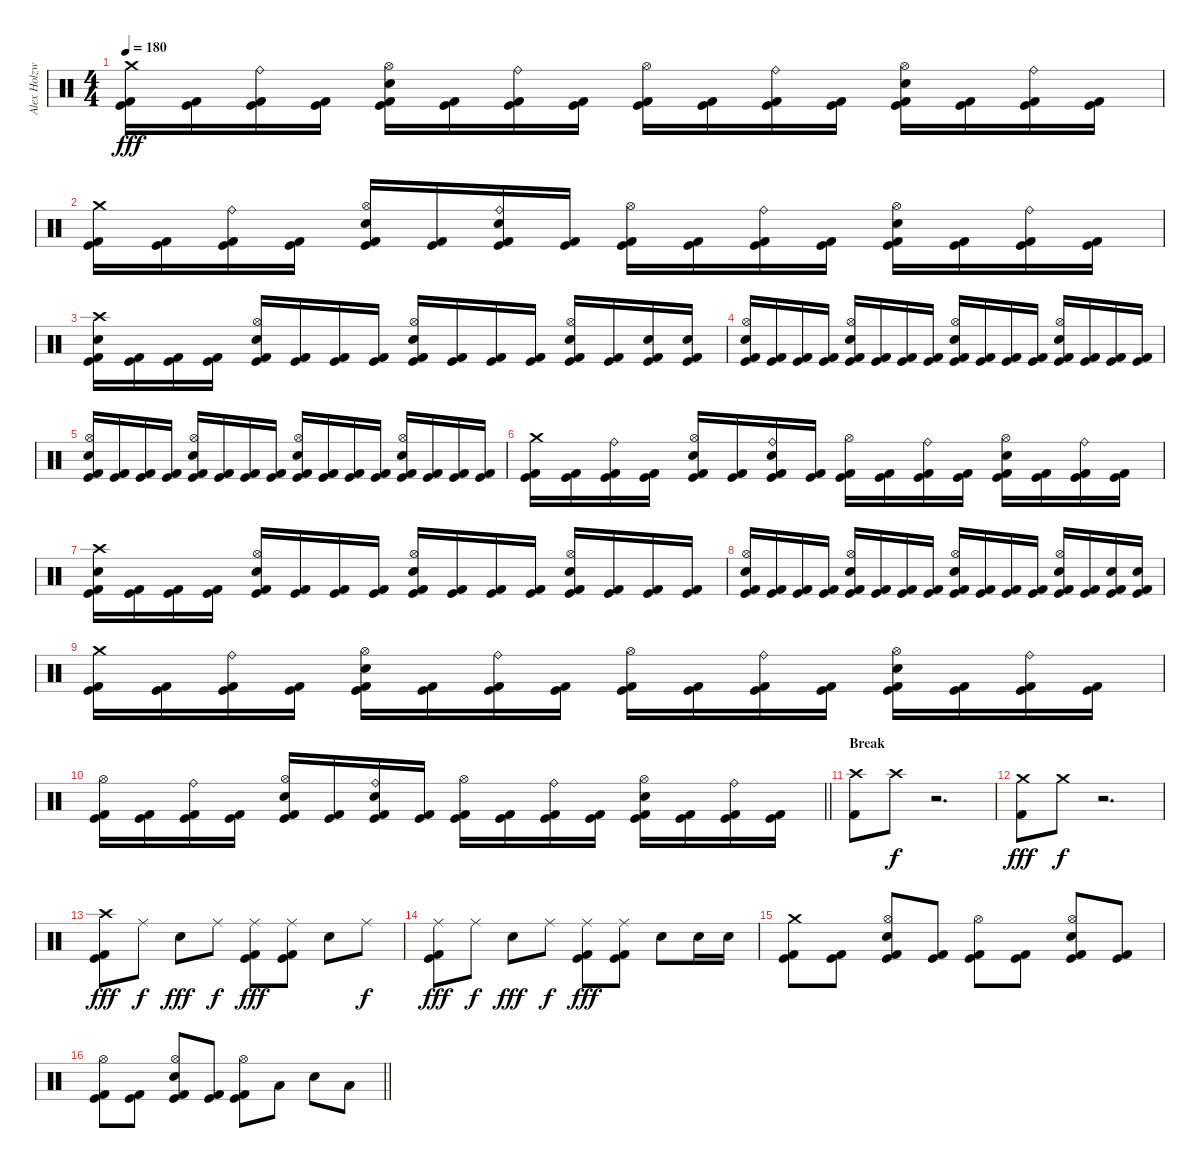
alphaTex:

\track ("Alex Holzwarth" "Alex Holzw") {instrument percussion}
\staff {score}
\articulation defaults
\ts (4 4)
\tempo 180
\clef neutral
\ks c
("Crash medium (hit)" "Kick (hit)" "Kick (hit) 2").16{dy fff} ("Kick (hit)" "Kick (hit) 2").16 ("Ride (bell)" "Kick (hit)" "Kick (hit) 2").16 ("Kick (hit)" "Kick (hit) 2").16 ("Hi-Hat (open)" "Snare (hit) 2" "Kick (hit)" "Kick (hit) 2").16 ("Kick (hit)" "Kick (hit) 2").16 ("Ride (bell)" "Kick (hit)" "Kick (hit) 2").16 ("Kick (hit)" "Kick (hit) 2").16 ("Hi-Hat (open)" "Kick (hit)" "Kick (hit) 2").16 ("Kick (hit)" "Kick (hit) 2").16 ("Ride (bell)" "Kick (hit)" "Kick (hit) 2").16 ("Kick (hit)" "Kick (hit) 2").16 ("Hi-Hat (open)" "Snare (hit) 2" "Kick (hit)" "Kick (hit) 2").16 ("Kick (hit)" "Kick (hit) 2").16 ("Ride (bell)" "Kick (hit)" "Kick (hit) 2").16 ("Kick (hit)" "Kick (hit) 2").16 |
("Crash medium (hit)" "Kick (hit)" "Kick (hit) 2").16 ("Kick (hit)" "Kick (hit) 2").16 ("Ride (bell)" "Kick (hit)" "Kick (hit) 2").16 ("Kick (hit)" "Kick (hit) 2").16 ("Hi-Hat (open)" "Snare (hit) 2" "Kick (hit)" "Kick (hit) 2").16 ("Kick (hit)" "Kick (hit) 2").16 ("Ride (bell)" "Snare (hit) 2" "Kick (hit)" "Kick (hit) 2").16 ("Kick (hit)" "Kick (hit) 2").16 ("Hi-Hat (open)" "Kick (hit)" "Kick (hit) 2").16 ("Kick (hit)" "Kick (hit) 2").16 ("Ride (bell)" "Kick (hit)" "Kick (hit) 2").16 ("Kick (hit)" "Kick (hit) 2").16 ("Hi-Hat (open)" "Snare (hit) 2" "Kick (hit)" "Kick (hit) 2").16 ("Kick (hit)" "Kick (hit) 2").16 ("Ride (bell)" "Kick (hit)" "Kick (hit) 2").16 ("Kick (hit)" "Kick (hit) 2").16 |
("Crash high (hit)" "Snare (hit) 2" "Kick (hit)" "Kick (hit) 2").16 ("Kick (hit)" "Kick (hit) 2").16 ("Kick (hit)" "Kick (hit) 2").16 ("Kick (hit)" "Kick (hit) 2").16 ("Hi-Hat (open)" "Snare (hit) 2" "Kick (hit)" "Kick (hit) 2").16 ("Kick (hit)" "Kick (hit) 2").16 ("Kick (hit)" "Kick (hit) 2").16 ("Kick (hit)" "Kick (hit) 2").16 ("Hi-Hat (open)" "Snare (hit) 2" "Kick (hit)" "Kick (hit) 2").16 ("Kick (hit)" "Kick (hit) 2").16 ("Kick (hit)" "Kick (hit) 2").16 ("Kick (hit)" "Kick (hit) 2").16 ("Hi-Hat (open)" "Snare (hit) 2" "Kick (hit)" "Kick (hit) 2").16 ("Kick (hit)" "Kick (hit) 2").16 ("Snare (hit) 2" "Kick (hit)" "Kick (hit) 2").16 ("Snare (hit) 2" "Kick (hit)" "Kick (hit) 2").16 |
("Hi-Hat (open)" "Snare (hit) 2" "Kick (hit)" "Kick (hit) 2").16 ("Kick (hit)" "Kick (hit) 2").16 ("Kick (hit)" "Kick (hit) 2").16 ("Kick (hit)" "Kick (hit) 2").16 ("Hi-Hat (open)" "Snare (hit) 2" "Kick (hit)" "Kick (hit) 2").16 ("Kick (hit)" "Kick (hit) 2").16 ("Kick (hit)" "Kick (hit) 2").16 ("Kick (hit)" "Kick (hit) 2").16 ("Hi-Hat (open)" "Snare (hit) 2" "Kick (hit)" "Kick (hit) 2").16 ("Kick (hit)" "Kick (hit) 2").16 ("Kick (hit)" "Kick (hit) 2").16 ("Kick (hit)" "Kick (hit) 2").16 ("Hi-Hat (open)" "Snare (hit) 2" "Kick (hit)" "Kick (hit) 2").16 ("Kick (hit)" "Kick (hit) 2").16 ("Kick (hit)" "Kick (hit) 2").16 ("Kick (hit)" "Kick (hit) 2").16 |
("Hi-Hat (open)" "Snare (hit) 2" "Kick (hit)" "Kick (hit) 2").16 ("Kick (hit)" "Kick (hit) 2").16 ("Kick (hit)" "Kick (hit) 2").16 ("Kick (hit)" "Kick (hit) 2").16 ("Hi-Hat (open)" "Snare (hit) 2" "Kick (hit)" "Kick (hit) 2").16 ("Kick (hit)" "Kick (hit) 2").16 ("Kick (hit)" "Kick (hit) 2").16 ("Kick (hit)" "Kick (hit) 2").16 ("Hi-Hat (open)" "Snare (hit) 2" "Kick (hit)" "Kick (hit) 2").16 ("Kick (hit)" "Kick (hit) 2").16 ("Kick (hit)" "Kick (hit) 2").16 ("Kick (hit)" "Kick (hit) 2").16 ("Hi-Hat (open)" "Snare (hit) 2" "Kick (hit)" "Kick (hit) 2").16 ("Kick (hit)" "Kick (hit) 2").16 ("Kick (hit)" "Kick (hit) 2").16 ("Kick (hit)" "Kick (hit) 2").16 |
("Crash medium (hit)" "Kick (hit)" "Kick (hit) 2").16 ("Kick (hit)" "Kick (hit) 2").16 ("Ride (bell)" "Kick (hit)" "Kick (hit) 2").16 ("Kick (hit)" "Kick (hit) 2").16 ("Hi-Hat (open)" "Snare (hit) 2" "Kick (hit)" "Kick (hit) 2").16 ("Kick (hit)" "Kick (hit) 2").16 ("Ride (bell)" "Snare (hit) 2" "Kick (hit)" "Kick (hit) 2").16 ("Kick (hit)" "Kick (hit) 2").16 ("Hi-Hat (open)" "Kick (hit)" "Kick (hit) 2").16 ("Kick (hit)" "Kick (hit) 2").16 ("Ride (bell)" "Kick (hit)" "Kick (hit) 2").16 ("Kick (hit)" "Kick (hit) 2").16 ("Hi-Hat (open)" "Snare (hit) 2" "Kick (hit)" "Kick (hit) 2").16 ("Kick (hit)" "Kick (hit) 2").16 ("Ride (bell)" "Kick (hit)" "Kick (hit) 2").16 ("Kick (hit)" "Kick (hit) 2").16 |
("Crash high (hit)" "Snare (hit) 2" "Kick (hit)" "Kick (hit) 2").16 ("Kick (hit)" "Kick (hit) 2").16 ("Kick (hit)" "Kick (hit) 2").16 ("Kick (hit)" "Kick (hit) 2").16 ("Hi-Hat (open)" "Snare (hit) 2" "Kick (hit)" "Kick (hit) 2").16 ("Kick (hit)" "Kick (hit) 2").16 ("Kick (hit)" "Kick (hit) 2").16 ("Kick (hit)" "Kick (hit) 2").16 ("Hi-Hat (open)" "Snare (hit) 2" "Kick (hit)" "Kick (hit) 2").16 ("Kick (hit)" "Kick (hit) 2").16 ("Kick (hit)" "Kick (hit) 2").16 ("Kick (hit)" "Kick (hit) 2").16 ("Hi-Hat (open)" "Snare (hit) 2" "Kick (hit)" "Kick (hit) 2").16 ("Kick (hit)" "Kick (hit) 2").16 ("Kick (hit)" "Kick (hit) 2").16 ("Kick (hit)" "Kick (hit) 2").16 |
("Hi-Hat (open)" "Snare (hit) 2" "Kick (hit)" "Kick (hit) 2").16 ("Kick (hit)" "Kick (hit) 2").16 ("Kick (hit)" "Kick (hit) 2").16 ("Kick (hit)" "Kick (hit) 2").16 ("Hi-Hat (open)" "Snare (hit) 2" "Kick (hit)" "Kick (hit) 2").16 ("Kick (hit)" "Kick (hit) 2").16 ("Kick (hit)" "Kick (hit) 2").16 ("Kick (hit)" "Kick (hit) 2").16 ("Hi-Hat (open)" "Snare (hit) 2" "Kick (hit)" "Kick (hit) 2").16 ("Kick (hit)" "Kick (hit) 2").16 ("Kick (hit)" "Kick (hit) 2").16 ("Kick (hit)" "Kick (hit) 2").16 ("Hi-Hat (open)" "Snare (hit) 2" "Kick (hit)" "Kick (hit) 2").16 ("Kick (hit)" "Kick (hit) 2").16 ("Snare (hit) 2" "Kick (hit)" "Kick (hit) 2").16 ("Snare (hit) 2" "Kick (hit)" "Kick (hit) 2").16 |
("Crash medium (hit)" "Kick (hit)" "Kick (hit) 2").16 ("Kick (hit)" "Kick (hit) 2").16 ("Ride (bell)" "Kick (hit)" "Kick (hit) 2").16 ("Kick (hit)" "Kick (hit) 2").16 ("Hi-Hat (open)" "Snare (hit) 2" "Kick (hit)" "Kick (hit) 2").16 ("Kick (hit)" "Kick (hit) 2").16 ("Ride (bell)" "Kick (hit)" "Kick (hit) 2").16 ("Kick (hit)" "Kick (hit) 2").16 ("Hi-Hat (open)" "Kick (hit)" "Kick (hit) 2").16 ("Kick (hit)" "Kick (hit) 2").16 ("Ride (bell)" "Kick (hit)" "Kick (hit) 2").16 ("Kick (hit)" "Kick (hit) 2").16 ("Hi-Hat (open)" "Snare (hit) 2" "Kick (hit)" "Kick (hit) 2").16 ("Kick (hit)" "Kick (hit) 2").16 ("Ride (bell)" "Kick (hit)" "Kick (hit) 2").16 ("Kick (hit)" "Kick (hit) 2").16 |
\barLineRight lightlight
("Hi-Hat (open)" "Kick (hit)" "Kick (hit) 2").16 ("Kick (hit)" "Kick (hit) 2").16 ("Ride (bell)" "Kick (hit)" "Kick (hit) 2").16 ("Kick (hit)" "Kick (hit) 2").16 ("Hi-Hat (open)" "Snare (hit) 2" "Kick (hit)" "Kick (hit) 2").16 ("Kick (hit)" "Kick (hit) 2").16 ("Ride (bell)" "Snare (hit) 2" "Kick (hit)" "Kick (hit) 2").16 ("Kick (hit)" "Kick (hit) 2").16 ("Hi-Hat (open)" "Kick (hit)" "Kick (hit) 2").16 ("Kick (hit)" "Kick (hit) 2").16 ("Ride (bell)" "Kick (hit)" "Kick (hit) 2").16 ("Kick (hit)" "Kick (hit) 2").16 ("Hi-Hat (open)" "Snare (hit) 2" "Kick (hit)" "Kick (hit) 2").16 ("Kick (hit)" "Kick (hit) 2").16 ("Ride (bell)" "Kick (hit)" "Kick (hit) 2").16 ("Kick (hit)" "Kick (hit) 2").16 |
\section ("" "Break")
("Crash high (hit)" "Kick (hit) 2").8 "Crash high (hit)".8{dy f volume 0} r.2{d} |
("Crash medium (hit)" "Kick (hit) 2").8{dy fff volume 16} "Crash medium (hit)".8{dy f volume 0} r.2{d} |
("Crash high (hit)" "Kick (hit)" "Kick (hit) 2").8{dy fff volume 16} "Ride (middle)".8{dy f} "Snare (hit) 2".8{dy fff} "Ride (middle)".8{dy f} ("Ride (middle)" "Kick (hit)" "Kick (hit) 2").8{dy fff} ("Ride (middle)" "Kick (hit)" "Kick (hit) 2").8 "Snare (hit) 2".8 "Ride (middle)".8{dy f} |
("Ride (middle)" "Kick (hit)" "Kick (hit) 2").8{dy fff} "Ride (middle)".8{dy f} "Snare (hit) 2".8{dy fff} "Ride (middle)".8{dy f} ("Ride (middle)" "Kick (hit)" "Kick (hit) 2").8{dy fff} ("Ride (middle)" "Kick (hit)" "Kick (hit) 2").8 "Snare (hit) 2".8 "Snare (hit) 2".16 "Snare (hit) 2".16 |
("Crash medium (hit)" "Kick (hit)" "Kick (hit) 2").8 ("Kick (hit)" "Kick (hit) 2").8 ("Hi-Hat (open)" "Snare (hit) 2" "Kick (hit)" "Kick (hit) 2").8 ("Kick (hit)" "Kick (hit) 2").8 ("Hi-Hat (open)" "Kick (hit)" "Kick (hit) 2").8 ("Kick (hit)" "Kick (hit) 2").8 ("Hi-Hat (open)" "Snare (hit) 2" "Kick (hit)" "Kick (hit) 2").8 ("Kick (hit)" "Kick (hit) 2").8 |
\barLineRight lightlight
("Hi-Hat (open)" "Kick (hit)" "Kick (hit) 2").8 ("Kick (hit)" "Kick (hit) 2").8 ("Hi-Hat (open)" "Snare (hit) 2" "Kick (hit)" "Kick (hit) 2").8 ("Kick (hit)" "Kick (hit) 2").8 ("Hi-Hat (open)" "Kick (hit)" "Kick (hit) 2").8 "Low Tom (hit)".8 "Snare (hit) 2".8 "Low Tom (hit)".8
